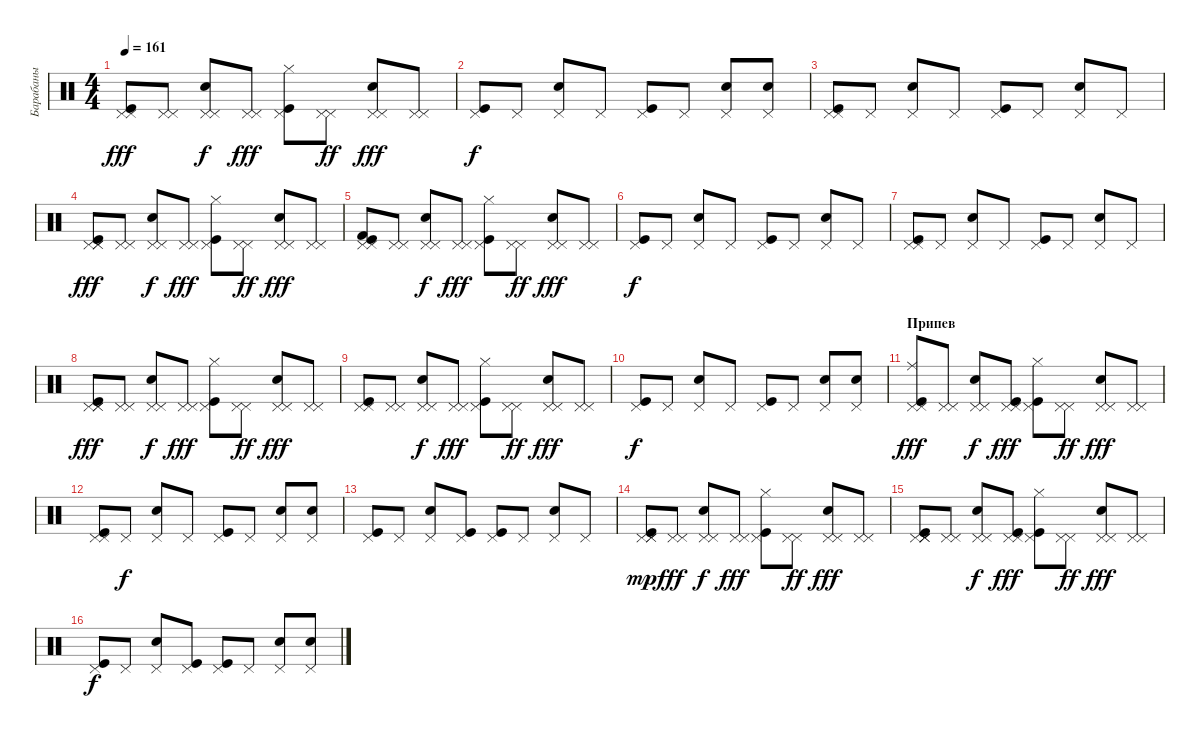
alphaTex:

\track ("Барабаны" "Барабаны") {instrument percussion}
\staff {score}
\articulation defaults
\ts (4 4)
\tempo 161
\clef neutral
\ks c
("Pedal Hi-Hat (hit)" "Kick (hit)" "Pedal Hi-Hat (hit)").8{dy fff} ("Pedal Hi-Hat (hit)" "Pedal Hi-Hat (hit)").8 ("Snare (hit) 2" "Pedal Hi-Hat (hit)" "Pedal Hi-Hat (hit)").8{dy f} ("Pedal Hi-Hat (hit)" "Pedal Hi-Hat (hit)").8{dy fff} ("Kick (hit)" "Pedal Hi-Hat (hit)" "Hi-Hat (closed)").8 ("Pedal Hi-Hat (hit)" "Pedal Hi-Hat (hit)").8{dy ff} ("Snare (hit) 2" "Pedal Hi-Hat (hit)" "Pedal Hi-Hat (hit)").8{dy fff} ("Pedal Hi-Hat (hit)" "Pedal Hi-Hat (hit)").8 |
("Kick (hit)" "Pedal Hi-Hat (hit)").8{dy f} "Pedal Hi-Hat (hit)".8 ("Snare (hit) 2" "Pedal Hi-Hat (hit)").8 "Pedal Hi-Hat (hit)".8 ("Kick (hit)" "Pedal Hi-Hat (hit)").8 "Pedal Hi-Hat (hit)".8 ("Snare (hit) 2" "Pedal Hi-Hat (hit)").8 ("Snare (hit) 2" "Pedal Hi-Hat (hit)").8 |
("Kick (hit)" "Pedal Hi-Hat (hit)" "Pedal Hi-Hat (hit)").8 "Pedal Hi-Hat (hit)".8 ("Snare (hit) 2" "Pedal Hi-Hat (hit)").8 "Pedal Hi-Hat (hit)".8 ("Kick (hit)" "Pedal Hi-Hat (hit)").8 "Pedal Hi-Hat (hit)".8 ("Snare (hit) 2" "Pedal Hi-Hat (hit)").8 "Pedal Hi-Hat (hit)".8 |
("Pedal Hi-Hat (hit)" "Kick (hit)" "Pedal Hi-Hat (hit)" "Pedal Hi-Hat (hit)").8{dy fff} ("Pedal Hi-Hat (hit)" "Pedal Hi-Hat (hit)").8 ("Snare (hit) 2" "Pedal Hi-Hat (hit)" "Pedal Hi-Hat (hit)").8{dy f} ("Pedal Hi-Hat (hit)" "Pedal Hi-Hat (hit)").8{dy fff} ("Kick (hit)" "Hi-Hat (closed)" "Pedal Hi-Hat (hit)").8 ("Pedal Hi-Hat (hit)" "Pedal Hi-Hat (hit)").8{dy ff} ("Snare (hit) 2" "Pedal Hi-Hat (hit)" "Pedal Hi-Hat (hit)").8{dy fff} ("Pedal Hi-Hat (hit)" "Pedal Hi-Hat (hit)").8 |
("Kick (hit)" "Kick (hit) 2" "Pedal Hi-Hat (hit)" "Pedal Hi-Hat (hit)").8 ("Pedal Hi-Hat (hit)" "Pedal Hi-Hat (hit)").8 ("Snare (hit) 2" "Pedal Hi-Hat (hit)" "Pedal Hi-Hat (hit)").8{dy f} ("Pedal Hi-Hat (hit)" "Pedal Hi-Hat (hit)").8{dy fff} ("Kick (hit)" "Pedal Hi-Hat (hit)" "Hi-Hat (closed)").8 ("Pedal Hi-Hat (hit)" "Pedal Hi-Hat (hit)").8{dy ff} ("Snare (hit) 2" "Pedal Hi-Hat (hit)" "Pedal Hi-Hat (hit)").8{dy fff} ("Pedal Hi-Hat (hit)" "Pedal Hi-Hat (hit)").8 |
("Kick (hit)" "Pedal Hi-Hat (hit)").8{dy f} "Pedal Hi-Hat (hit)".8 ("Snare (hit) 2" "Pedal Hi-Hat (hit)").8 "Pedal Hi-Hat (hit)".8 ("Kick (hit)" "Pedal Hi-Hat (hit)").8 "Pedal Hi-Hat (hit)".8 ("Snare (hit) 2" "Pedal Hi-Hat (hit)").8 "Pedal Hi-Hat (hit)".8 |
("Kick (hit)" "Pedal Hi-Hat (hit)" "Pedal Hi-Hat (hit)").8 "Pedal Hi-Hat (hit)".8 ("Snare (hit) 2" "Pedal Hi-Hat (hit)").8 "Pedal Hi-Hat (hit)".8 ("Kick (hit)" "Pedal Hi-Hat (hit)").8 "Pedal Hi-Hat (hit)".8 ("Snare (hit) 2" "Pedal Hi-Hat (hit)").8 "Pedal Hi-Hat (hit)".8 |
("Pedal Hi-Hat (hit)" "Kick (hit)" "Pedal Hi-Hat (hit)" "Pedal Hi-Hat (hit)").8{dy fff} ("Pedal Hi-Hat (hit)" "Pedal Hi-Hat (hit)").8 ("Snare (hit) 2" "Pedal Hi-Hat (hit)" "Pedal Hi-Hat (hit)").8{dy f} ("Pedal Hi-Hat (hit)" "Pedal Hi-Hat (hit)").8{dy fff} ("Kick (hit)" "Hi-Hat (closed)" "Pedal Hi-Hat (hit)").8 ("Pedal Hi-Hat (hit)" "Pedal Hi-Hat (hit)").8{dy ff} ("Snare (hit) 2" "Pedal Hi-Hat (hit)" "Pedal Hi-Hat (hit)").8{dy fff} ("Pedal Hi-Hat (hit)" "Pedal Hi-Hat (hit)").8 |
("Pedal Hi-Hat (hit)" "Pedal Hi-Hat (hit)" "Kick (hit)").8 ("Pedal Hi-Hat (hit)" "Pedal Hi-Hat (hit)").8 ("Snare (hit) 2" "Pedal Hi-Hat (hit)" "Pedal Hi-Hat (hit)").8{dy f} ("Pedal Hi-Hat (hit)" "Pedal Hi-Hat (hit)").8{dy fff} ("Kick (hit)" "Pedal Hi-Hat (hit)" "Hi-Hat (closed)").8 ("Pedal Hi-Hat (hit)" "Pedal Hi-Hat (hit)").8{dy ff} ("Snare (hit) 2" "Pedal Hi-Hat (hit)" "Pedal Hi-Hat (hit)").8{dy fff} ("Pedal Hi-Hat (hit)" "Pedal Hi-Hat (hit)").8 |
("Pedal Hi-Hat (hit)" "Kick (hit)").8{dy f} "Pedal Hi-Hat (hit)".8 ("Snare (hit) 2" "Pedal Hi-Hat (hit)").8 "Pedal Hi-Hat (hit)".8 ("Kick (hit)" "Pedal Hi-Hat (hit)").8 "Pedal Hi-Hat (hit)".8 ("Snare (hit) 2" "Pedal Hi-Hat (hit)").8 ("Snare (hit) 2" "Pedal Hi-Hat (hit)").8 |
\section ("" "Припев")
("Ride (middle)" "Pedal Hi-Hat (hit)" "Kick (hit)" "Pedal Hi-Hat (hit)").8{dy fff} ("Pedal Hi-Hat (hit)" "Pedal Hi-Hat (hit)").8 ("Snare (hit) 2" "Pedal Hi-Hat (hit)" "Pedal Hi-Hat (hit)").8{dy f} ("Kick (hit)" "Pedal Hi-Hat (hit)" "Pedal Hi-Hat (hit)").8{dy fff} ("Kick (hit)" "Pedal Hi-Hat (hit)" "Hi-Hat (closed)").8 ("Pedal Hi-Hat (hit)" "Pedal Hi-Hat (hit)").8{dy ff} ("Snare (hit) 2" "Pedal Hi-Hat (hit)" "Pedal Hi-Hat (hit)").8{dy fff} ("Pedal Hi-Hat (hit)" "Pedal Hi-Hat (hit)").8 |
("Pedal Hi-Hat (hit)" "Kick (hit)" "Pedal Hi-Hat (hit)").8 "Pedal Hi-Hat (hit)".8{dy f} ("Snare (hit) 2" "Pedal Hi-Hat (hit)").8 "Pedal Hi-Hat (hit)".8 ("Kick (hit)" "Pedal Hi-Hat (hit)").8 "Pedal Hi-Hat (hit)".8 ("Snare (hit) 2" "Pedal Hi-Hat (hit)").8 ("Snare (hit) 2" "Pedal Hi-Hat (hit)").8 |
("Kick (hit)" "Pedal Hi-Hat (hit)").8 "Pedal Hi-Hat (hit)".8 ("Snare (hit) 2" "Pedal Hi-Hat (hit)").8 ("Kick (hit)" "Pedal Hi-Hat (hit)").8 ("Kick (hit)" "Pedal Hi-Hat (hit)").8 "Pedal Hi-Hat (hit)".8 ("Snare (hit) 2" "Pedal Hi-Hat (hit)").8 "Pedal Hi-Hat (hit)".8 |
("Pedal Hi-Hat (hit)" "Kick (hit)" "Pedal Hi-Hat (hit)" "Pedal Hi-Hat (hit)").8{dy mp} ("Pedal Hi-Hat (hit)" "Pedal Hi-Hat (hit)").8{dy fff} ("Snare (hit) 2" "Pedal Hi-Hat (hit)" "Pedal Hi-Hat (hit)").8{dy f} ("Pedal Hi-Hat (hit)" "Pedal Hi-Hat (hit)").8{dy fff} ("Kick (hit)" "Hi-Hat (closed)" "Pedal Hi-Hat (hit)").8 ("Pedal Hi-Hat (hit)" "Pedal Hi-Hat (hit)").8{dy ff} ("Snare (hit) 2" "Pedal Hi-Hat (hit)" "Pedal Hi-Hat (hit)").8{dy fff} ("Pedal Hi-Hat (hit)" "Pedal Hi-Hat (hit)").8 |
("Pedal Hi-Hat (hit)" "Pedal Hi-Hat (hit)" "Pedal Hi-Hat (hit)" "Pedal Hi-Hat (hit)" "Kick (hit)").8 ("Pedal Hi-Hat (hit)" "Pedal Hi-Hat (hit)").8 ("Snare (hit) 2" "Pedal Hi-Hat (hit)" "Pedal Hi-Hat (hit)").8{dy f} ("Kick (hit)" "Pedal Hi-Hat (hit)" "Pedal Hi-Hat (hit)").8{dy fff} ("Kick (hit)" "Pedal Hi-Hat (hit)" "Hi-Hat (closed)").8 ("Pedal Hi-Hat (hit)" "Pedal Hi-Hat (hit)").8{dy ff} ("Snare (hit) 2" "Pedal Hi-Hat (hit)" "Pedal Hi-Hat (hit)").8{dy fff} ("Pedal Hi-Hat (hit)" "Pedal Hi-Hat (hit)").8 |
("Kick (hit)" "Pedal Hi-Hat (hit)").8{dy f} "Pedal Hi-Hat (hit)".8 ("Snare (hit) 2" "Pedal Hi-Hat (hit)").8 ("Kick (hit)" "Pedal Hi-Hat (hit)").8 ("Kick (hit)" "Pedal Hi-Hat (hit)").8 "Pedal Hi-Hat (hit)".8 ("Snare (hit) 2" "Pedal Hi-Hat (hit)").8 ("Snare (hit) 2" "Pedal Hi-Hat (hit)").8
